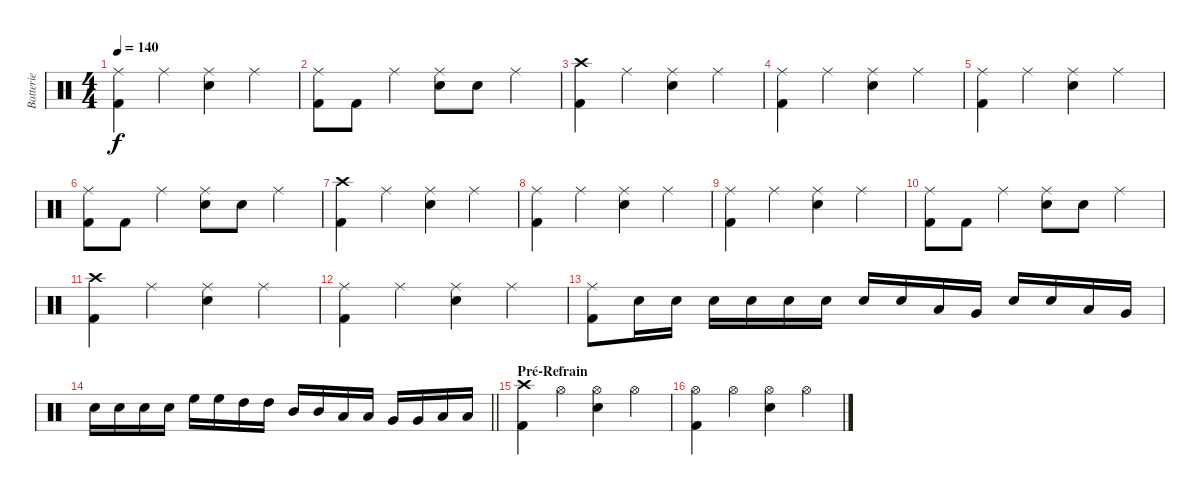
\track ("Batterie" "Batterie") {instrument percussion}
\staff {score}
\articulation defaults
\ts (4 4)
\tempo 140
\clef neutral
\ks c
("Ride (middle)" "Kick (hit) 2").4{dy f} "Ride (middle)".4 ("Ride (middle)" "Electric Snare (hit)").4 "Ride (middle)".4 |
("Ride (middle)" "Kick (hit) 2").8 "Kick (hit) 2".8 "Ride (middle)".4 ("Ride (middle)" "Electric Snare (hit)").8 "Electric Snare (hit)".8 "Ride (middle)".4 |
("Crash high (hit)" "Kick (hit) 2").4 "Ride (middle)".4 ("Ride (middle)" "Electric Snare (hit)").4 "Ride (middle)".4 |
("Ride (middle)" "Kick (hit) 2").4 "Ride (middle)".4 ("Ride (middle)" "Electric Snare (hit)").4 "Ride (middle)".4 |
("Ride (middle)" "Kick (hit) 2").4 "Ride (middle)".4 ("Ride (middle)" "Electric Snare (hit)").4 "Ride (middle)".4 |
("Ride (middle)" "Kick (hit) 2").8 "Kick (hit) 2".8 "Ride (middle)".4 ("Ride (middle)" "Electric Snare (hit)").8 "Electric Snare (hit)".8 "Ride (middle)".4 |
("Crash high (hit)" "Kick (hit) 2").4 "Ride (middle)".4 ("Ride (middle)" "Electric Snare (hit)").4 "Ride (middle)".4 |
("Ride (middle)" "Kick (hit) 2").4 "Ride (middle)".4 ("Ride (middle)" "Electric Snare (hit)").4 "Ride (middle)".4 |
("Ride (middle)" "Kick (hit) 2").4 "Ride (middle)".4 ("Ride (middle)" "Electric Snare (hit)").4 "Ride (middle)".4 |
("Ride (middle)" "Kick (hit) 2").8 "Kick (hit) 2".8 "Ride (middle)".4 ("Ride (middle)" "Electric Snare (hit)").8 "Electric Snare (hit)".8 "Ride (middle)".4 |
("Crash high (hit)" "Kick (hit) 2").4 "Ride (middle)".4 ("Ride (middle)" "Electric Snare (hit)").4 "Ride (middle)".4 |
("Ride (middle)" "Kick (hit) 2").4 "Ride (middle)".4 ("Ride (middle)" "Electric Snare (hit)").4 "Ride (middle)".4 |
("Ride (middle)" "Kick (hit) 2").8 "Electric Snare (hit)".16 "Electric Snare (hit)".16 "Electric Snare (hit)".16 "Electric Snare (hit)".16 "Electric Snare (hit)".16 "Electric Snare (hit)".16 "Electric Snare (hit)".16 "Electric Snare (hit)".16 "Low Tom (hit)".16 "Very Low Tom (hit)".16 "Electric Snare (hit)".16 "Electric Snare (hit)".16 "Low Tom (hit)".16 "Very Low Tom (hit)".16 |
\barLineRight lightlight "Electric Snare (hit)".16 "Electric Snare (hit)".16 "Electric Snare (hit)".16 "Electric Snare (hit)".16 "High Floor Tom (hit)".16 "High Floor Tom (hit)".16 "High Tom (hit)".16 "High Tom (hit)".16 "Mid Tom (hit)".16 "Mid Tom (hit)".16 "Low Tom (hit)".16 "Low Tom (hit)".16 "Very Low Tom (hit)".16 "Very Low Tom (hit)".16 "Low Floor Tom (hit)".16 "Low Floor Tom (hit)".16
|
\section ("" "Pré-Refrain")
("Crash high (hit)" "Kick (hit) 2").4 "Hi-Hat (open)".4 ("Hi-Hat (open)" "Electric Snare (hit)").4 "Hi-Hat (open)".4 |
("Hi-Hat (open)" "Kick (hit) 2").4 "Hi-Hat (open)".4 ("Hi-Hat (open)" "Electric Snare (hit)").4 "Hi-Hat (open)".4
